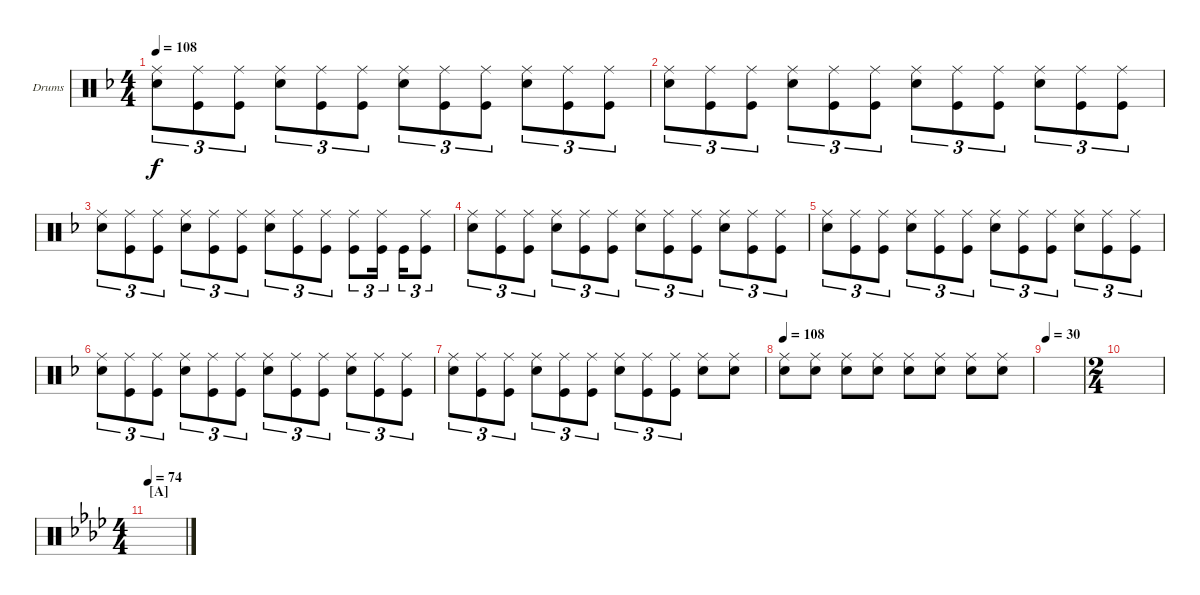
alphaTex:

\defaultSystemsLayout 4
\bracketExtendMode groupsimilarinstruments
\firstSystemTrackNameOrientation horizontal
\otherSystemsTrackNameOrientation horizontal
\track ("Drumkit" "Drums") {instrument percussion}
\staff {score}
\articulation defaults
\ts (4 4)
\tempo 108
\clef neutral
\ks dminor
("Snare (hit) 2" "Ride (middle)").8{tu (3 2) dy f} ("Kick (hit)" "Ride (middle)").8{tu (3 2)} ("Kick (hit)" "Ride (middle)").8{tu (3 2)} ("Snare (hit) 2" "Ride (middle)").8{tu (3 2)} ("Kick (hit)" "Ride (middle)").8{tu (3 2)} ("Kick (hit)" "Ride (middle)").8{tu (3 2)} ("Snare (hit) 2" "Ride (middle)").8{tu (3 2)} ("Kick (hit)" "Ride (middle)").8{tu (3 2)} ("Kick (hit)" "Ride (middle)").8{tu (3 2)} ("Snare (hit) 2" "Ride (middle)").8{tu (3 2)} ("Kick (hit)" "Ride (middle)").8{tu (3 2)} ("Kick (hit)" "Ride (middle)").8{tu (3 2)} |
("Snare (hit) 2" "Ride (middle)").8{tu (3 2)} ("Kick (hit)" "Ride (middle)").8{tu (3 2)} ("Kick (hit)" "Ride (middle)").8{tu (3 2)} ("Snare (hit) 2" "Ride (middle)").8{tu (3 2)} ("Kick (hit)" "Ride (middle)").8{tu (3 2)} ("Kick (hit)" "Ride (middle)").8{tu (3 2)} ("Snare (hit) 2" "Ride (middle)").8{tu (3 2)} ("Kick (hit)" "Ride (middle)").8{tu (3 2)} ("Kick (hit)" "Ride (middle)").8{tu (3 2)} ("Snare (hit) 2" "Ride (middle)").8{tu (3 2)} ("Kick (hit)" "Ride (middle)").8{tu (3 2)} ("Kick (hit)" "Ride (middle)").8{tu (3 2)} |
("Snare (hit) 2" "Ride (middle)").8{tu (3 2)} ("Kick (hit)" "Ride (middle)").8{tu (3 2)} ("Kick (hit)" "Ride (middle)").8{tu (3 2)} ("Snare (hit) 2" "Ride (middle)").8{tu (3 2)} ("Kick (hit)" "Ride (middle)").8{tu (3 2)} ("Kick (hit)" "Ride (middle)").8{tu (3 2)} ("Snare (hit) 2" "Ride (middle)").8{tu (3 2)} ("Kick (hit)" "Ride (middle)").8{tu (3 2)} ("Kick (hit)" "Ride (middle)").8{tu (3 2)} ("Ride (middle)" "Kick (hit)").8{tu (3 2)} ("Kick (hit)" "Ride (middle)").16{tu (3 2)} "Kick (hit)".16{tu (3 2)} ("Kick (hit)" "Ride (middle)").8{tu (3 2)} |
("Snare (hit) 2" "Ride (middle)").8{tu (3 2)} ("Kick (hit)" "Ride (middle)").8{tu (3 2)} ("Kick (hit)" "Ride (middle)").8{tu (3 2)} ("Snare (hit) 2" "Ride (middle)").8{tu (3 2)} ("Kick (hit)" "Ride (middle)").8{tu (3 2)} ("Kick (hit)" "Ride (middle)").8{tu (3 2)} ("Snare (hit) 2" "Ride (middle)").8{tu (3 2)} ("Kick (hit)" "Ride (middle)").8{tu (3 2)} ("Kick (hit)" "Ride (middle)").8{tu (3 2)} ("Snare (hit) 2" "Ride (middle)").8{tu (3 2)} ("Kick (hit)" "Ride (middle)").8{tu (3 2)} ("Kick (hit)" "Ride (middle)").8{tu (3 2)} |
("Snare (hit) 2" "Ride (middle)").8{tu (3 2)} ("Kick (hit)" "Ride (middle)").8{tu (3 2)} ("Kick (hit)" "Ride (middle)").8{tu (3 2)} ("Snare (hit) 2" "Ride (middle)").8{tu (3 2)} ("Kick (hit)" "Ride (middle)").8{tu (3 2)} ("Kick (hit)" "Ride (middle)").8{tu (3 2)} ("Snare (hit) 2" "Ride (middle)").8{tu (3 2)} ("Kick (hit)" "Ride (middle)").8{tu (3 2)} ("Kick (hit)" "Ride (middle)").8{tu (3 2)} ("Snare (hit) 2" "Ride (middle)").8{tu (3 2)} ("Kick (hit)" "Ride (middle)").8{tu (3 2)} ("Kick (hit)" "Ride (middle)").8{tu (3 2)} |
("Snare (hit) 2" "Ride (middle)").8{tu (3 2)} ("Kick (hit)" "Ride (middle)").8{tu (3 2)} ("Kick (hit)" "Ride (middle)").8{tu (3 2)} ("Snare (hit) 2" "Ride (middle)").8{tu (3 2)} ("Kick (hit)" "Ride (middle)").8{tu (3 2)} ("Kick (hit)" "Ride (middle)").8{tu (3 2)} ("Snare (hit) 2" "Ride (middle)").8{tu (3 2)} ("Kick (hit)" "Ride (middle)").8{tu (3 2)} ("Kick (hit)" "Ride (middle)").8{tu (3 2)} ("Snare (hit) 2" "Ride (middle)").8{tu (3 2)} ("Kick (hit)" "Ride (middle)").8{tu (3 2)} ("Kick (hit)" "Ride (middle)").8{tu (3 2)} |
("Snare (hit) 2" "Ride (middle)").8{tu (3 2)} ("Kick (hit)" "Ride (middle)").8{tu (3 2)} ("Kick (hit)" "Ride (middle)").8{tu (3 2)} ("Snare (hit) 2" "Ride (middle)").8{tu (3 2)} ("Kick (hit)" "Ride (middle)").8{tu (3 2)} ("Kick (hit)" "Ride (middle)").8{tu (3 2)} ("Snare (hit) 2" "Ride (middle)").8{tu (3 2)} ("Kick (hit)" "Ride (middle)").8{tu (3 2)} ("Kick (hit)" "Ride (middle)").8{tu (3 2)} ("Snare (hit) 2" "Ride (middle)").8 ("Snare (hit) 2" "Ride (middle)").8 |
\tempo 108
("Snare (hit) 2" "Ride (middle)").8 ("Snare (hit) 2" "Ride (middle)").8 ("Snare (hit) 2" "Ride (middle)").8 ("Snare (hit) 2" "Ride (middle)").8 ("Snare (hit) 2" "Ride (middle)").8 ("Snare (hit) 2" "Ride (middle)").8 ("Snare (hit) 2" "Ride (middle)").8 ("Snare (hit) 2" "Ride (middle)").8 |
\tempo 30
|
\ts (2 4)
|
\ts (4 4)
\section ("A" "")
\tempo 74
\ks ab
